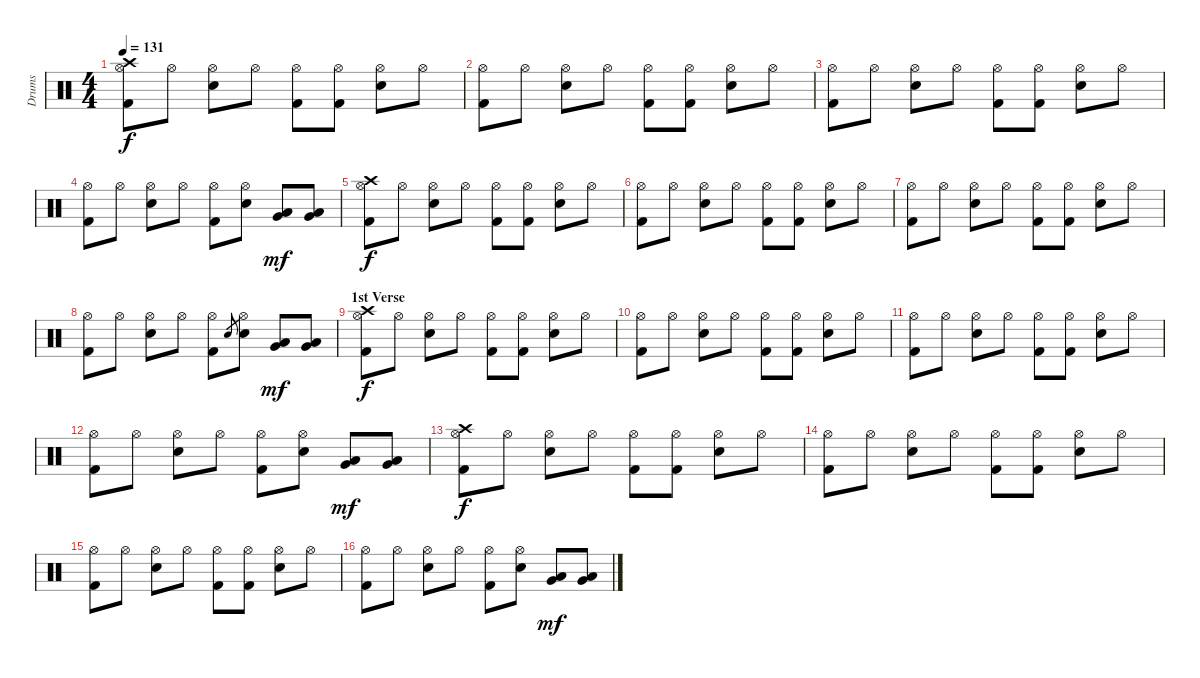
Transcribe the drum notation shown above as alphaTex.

\track ("Drums" "Drums") {instrument percussion}
\staff {score}
\articulation defaults
\ts (4 4)
\tempo 131
\clef neutral
\ks c
("Kick (hit) 2" "Crash high (hit)" "Hi-Hat (open)").8{dy f} "Hi-Hat (open)".8 ("Electric Snare (hit)" "Hi-Hat (open)").8 "Hi-Hat (open)".8 ("Kick (hit) 2" "Hi-Hat (open)").8 ("Kick (hit) 2" "Hi-Hat (open)").8 ("Electric Snare (hit)" "Hi-Hat (open)").8 "Hi-Hat (open)".8 |
("Kick (hit) 2" "Hi-Hat (open)").8 "Hi-Hat (open)".8 ("Electric Snare (hit)" "Hi-Hat (open)").8 "Hi-Hat (open)".8 ("Kick (hit) 2" "Hi-Hat (open)").8 ("Kick (hit) 2" "Hi-Hat (open)").8 ("Electric Snare (hit)" "Hi-Hat (open)").8 "Hi-Hat (open)".8 |
("Kick (hit) 2" "Hi-Hat (open)").8 "Hi-Hat (open)".8 ("Electric Snare (hit)" "Hi-Hat (open)").8 "Hi-Hat (open)".8 ("Kick (hit) 2" "Hi-Hat (open)").8 ("Kick (hit) 2" "Hi-Hat (open)").8 ("Electric Snare (hit)" "Hi-Hat (open)").8 "Hi-Hat (open)".8 |
("Kick (hit) 2" "Hi-Hat (open)").8 "Hi-Hat (open)".8 ("Electric Snare (hit)" "Hi-Hat (open)").8 "Hi-Hat (open)".8 ("Kick (hit) 2" "Hi-Hat (open)").8 ("Electric Snare (hit)" "Hi-Hat (open)").8 ("Low Tom (hit)" "Very Low Tom (hit)").8{dy mf} ("Low Tom (hit)" "Very Low Tom (hit)").8 |
("Kick (hit) 2" "Crash high (hit)" "Hi-Hat (open)").8{dy f} "Hi-Hat (open)".8 ("Electric Snare (hit)" "Hi-Hat (open)").8 "Hi-Hat (open)".8 ("Kick (hit) 2" "Hi-Hat (open)").8 ("Kick (hit) 2" "Hi-Hat (open)").8 ("Electric Snare (hit)" "Hi-Hat (open)").8 "Hi-Hat (open)".8 |
("Kick (hit) 2" "Hi-Hat (open)").8 "Hi-Hat (open)".8 ("Electric Snare (hit)" "Hi-Hat (open)").8 "Hi-Hat (open)".8 ("Kick (hit) 2" "Hi-Hat (open)").8 ("Kick (hit) 2" "Hi-Hat (open)").8 ("Electric Snare (hit)" "Hi-Hat (open)").8 "Hi-Hat (open)".8 |
("Kick (hit) 2" "Hi-Hat (open)").8 "Hi-Hat (open)".8 ("Electric Snare (hit)" "Hi-Hat (open)").8 "Hi-Hat (open)".8 ("Kick (hit) 2" "Hi-Hat (open)").8 ("Kick (hit) 2" "Hi-Hat (open)").8 ("Electric Snare (hit)" "Hi-Hat (open)").8 "Hi-Hat (open)".8 |
("Kick (hit) 2" "Hi-Hat (open)").8 "Hi-Hat (open)".8 ("Electric Snare (hit)" "Hi-Hat (open)").8 "Hi-Hat (open)".8 ("Kick (hit) 2" "Hi-Hat (open)").8 "Electric Snare (hit)".8{gr} ("Electric Snare (hit)" "Hi-Hat (open)").8 ("Low Tom (hit)" "Very Low Tom (hit)").8{dy mf} ("Low Tom (hit)" "Very Low Tom (hit)").8 |
\section ("" "1st Verse")
("Kick (hit) 2" "Crash high (hit)" "Hi-Hat (open)").8{dy f} "Hi-Hat (open)".8 ("Electric Snare (hit)" "Hi-Hat (open)").8 "Hi-Hat (open)".8 ("Kick (hit) 2" "Hi-Hat (open)").8 ("Kick (hit) 2" "Hi-Hat (open)").8 ("Electric Snare (hit)" "Hi-Hat (open)").8 "Hi-Hat (open)".8 |
("Kick (hit) 2" "Hi-Hat (open)").8 "Hi-Hat (open)".8 ("Electric Snare (hit)" "Hi-Hat (open)").8 "Hi-Hat (open)".8 ("Kick (hit) 2" "Hi-Hat (open)").8 ("Kick (hit) 2" "Hi-Hat (open)").8 ("Electric Snare (hit)" "Hi-Hat (open)").8 "Hi-Hat (open)".8 |
("Kick (hit) 2" "Hi-Hat (open)").8 "Hi-Hat (open)".8 ("Electric Snare (hit)" "Hi-Hat (open)").8 "Hi-Hat (open)".8 ("Kick (hit) 2" "Hi-Hat (open)").8 ("Kick (hit) 2" "Hi-Hat (open)").8 ("Electric Snare (hit)" "Hi-Hat (open)").8 "Hi-Hat (open)".8 |
("Kick (hit) 2" "Hi-Hat (open)").8 "Hi-Hat (open)".8 ("Electric Snare (hit)" "Hi-Hat (open)").8 "Hi-Hat (open)".8 ("Kick (hit) 2" "Hi-Hat (open)").8 ("Electric Snare (hit)" "Hi-Hat (open)").8 ("Low Tom (hit)" "Very Low Tom (hit)").8{dy mf} ("Low Tom (hit)" "Very Low Tom (hit)").8 |
("Kick (hit) 2" "Crash high (hit)" "Hi-Hat (open)").8{dy f} "Hi-Hat (open)".8 ("Electric Snare (hit)" "Hi-Hat (open)").8 "Hi-Hat (open)".8 ("Kick (hit) 2" "Hi-Hat (open)").8 ("Kick (hit) 2" "Hi-Hat (open)").8 ("Electric Snare (hit)" "Hi-Hat (open)").8 "Hi-Hat (open)".8 |
("Kick (hit) 2" "Hi-Hat (open)").8 "Hi-Hat (open)".8 ("Electric Snare (hit)" "Hi-Hat (open)").8 "Hi-Hat (open)".8 ("Kick (hit) 2" "Hi-Hat (open)").8 ("Kick (hit) 2" "Hi-Hat (open)").8 ("Electric Snare (hit)" "Hi-Hat (open)").8 "Hi-Hat (open)".8 |
("Kick (hit) 2" "Hi-Hat (open)").8 "Hi-Hat (open)".8 ("Electric Snare (hit)" "Hi-Hat (open)").8 "Hi-Hat (open)".8 ("Kick (hit) 2" "Hi-Hat (open)").8 ("Kick (hit) 2" "Hi-Hat (open)").8 ("Electric Snare (hit)" "Hi-Hat (open)").8 "Hi-Hat (open)".8 |
("Kick (hit) 2" "Hi-Hat (open)").8 "Hi-Hat (open)".8 ("Electric Snare (hit)" "Hi-Hat (open)").8 "Hi-Hat (open)".8 ("Kick (hit) 2" "Hi-Hat (open)").8 ("Electric Snare (hit)" "Hi-Hat (open)").8 ("Low Tom (hit)" "Very Low Tom (hit)").8{dy mf} ("Low Tom (hit)" "Very Low Tom (hit)").8
